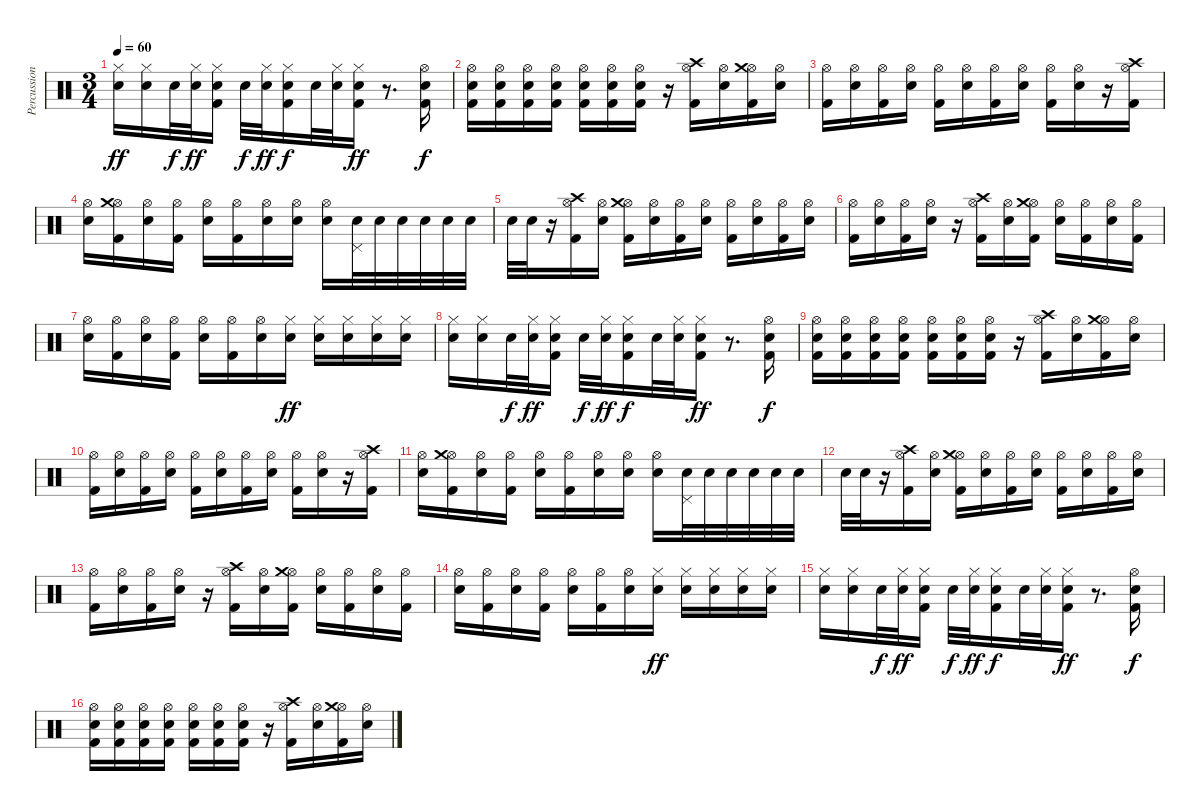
\track ("Percussion" "Percussion") {instrument percussion}
\staff {score}
\articulation defaults
\ts (3 4)
\tempo 60
\clef neutral
\ks c
("Hi-Hat (closed)" "Electric Snare (hit)").16{dy ff} ("Hi-Hat (closed)" "Electric Snare (hit)").16 "Electric Snare (hit)".32{dy f} ("Hi-Hat (closed)" "Electric Snare (hit)").32{dy ff} ("Hi-Hat (closed)" "Electric Snare (hit)" "Kick (hit) 2").16 "Electric Snare (hit)".32{dy f} ("Hi-Hat (closed)" "Electric Snare (hit)").32{dy ff} ("Hi-Hat (closed)" "Electric Snare (hit)" "Kick (hit) 2").16{dy f} "Electric Snare (hit)".32 ("Hi-Hat (closed)" "Electric Snare (hit)").32 ("Hi-Hat (closed)" "Electric Snare (hit)" "Kick (hit) 2").16{dy ff} r.8{d} ("Hi-Hat (open)" "Electric Snare (hit)" "Kick (hit) 2").16{dy f} |
("Hi-Hat (open)" "Electric Snare (hit)" "Kick (hit) 2").16 ("Hi-Hat (open)" "Electric Snare (hit)" "Kick (hit) 2").16 ("Hi-Hat (open)" "Electric Snare (hit)" "Kick (hit) 2").16 ("Hi-Hat (open)" "Electric Snare (hit)" "Kick (hit) 2").16 ("Hi-Hat (open)" "Electric Snare (hit)" "Kick (hit) 2").16 ("Hi-Hat (open)" "Electric Snare (hit)" "Kick (hit) 2").16 ("Hi-Hat (open)" "Electric Snare (hit)" "Kick (hit) 2").16 r.16 ("Hi-Hat (open)" "Crash high (hit)" "Kick (hit) 2").16 ("Hi-Hat (open)" "Electric Snare (hit)").16 ("Hi-Hat (open)" "Crash medium (hit)" "Kick (hit) 2").16 ("Hi-Hat (open)" "Electric Snare (hit)").16 |
("Hi-Hat (open)" "Kick (hit) 2").16 ("Hi-Hat (open)" "Electric Snare (hit)").16 ("Hi-Hat (open)" "Kick (hit) 2").16 ("Hi-Hat (open)" "Electric Snare (hit)").16 ("Hi-Hat (open)" "Kick (hit) 2").16 ("Hi-Hat (open)" "Electric Snare (hit)").16 ("Hi-Hat (open)" "Kick (hit) 2").16 ("Hi-Hat (open)" "Electric Snare (hit)").16 ("Hi-Hat (open)" "Kick (hit) 2").16 ("Hi-Hat (open)" "Electric Snare (hit)").16 r.16 ("Hi-Hat (open)" "Crash high (hit)" "Kick (hit) 2").16 |
("Hi-Hat (open)" "Electric Snare (hit)").16 ("Hi-Hat (open)" "Crash medium (hit)" "Kick (hit) 2").16 ("Hi-Hat (open)" "Electric Snare (hit)").16 ("Hi-Hat (open)" "Kick (hit) 2").16 ("Hi-Hat (open)" "Electric Snare (hit)").16 ("Hi-Hat (open)" "Kick (hit) 2").16 ("Hi-Hat (open)" "Electric Snare (hit)").16 ("Hi-Hat (open)" "Electric Snare (hit)").16 ("Hi-Hat (open)" "Electric Snare (hit)").16 ("Pedal Hi-Hat (hit)" "Electric Snare (hit)").32 "Electric Snare (hit)".32 "Electric Snare (hit)".32 "Electric Snare (hit)".32 "Electric Snare (hit)".32 "Electric Snare (hit)".32 |
"Electric Snare (hit)".32 "Electric Snare (hit)".32 r.16 ("Hi-Hat (open)" "Crash high (hit)" "Kick (hit) 2").16 ("Hi-Hat (open)" "Electric Snare (hit)").16 ("Hi-Hat (open)" "Crash medium (hit)" "Kick (hit) 2").16 ("Hi-Hat (open)" "Electric Snare (hit)").16 ("Hi-Hat (open)" "Kick (hit) 2").16 ("Hi-Hat (open)" "Electric Snare (hit)").16 ("Hi-Hat (open)" "Kick (hit) 2").16 ("Hi-Hat (open)" "Electric Snare (hit)").16 ("Hi-Hat (open)" "Kick (hit) 2").16 ("Hi-Hat (open)" "Electric Snare (hit)").16 |
("Hi-Hat (open)" "Kick (hit) 2").16 ("Hi-Hat (open)" "Electric Snare (hit)").16 ("Hi-Hat (open)" "Kick (hit) 2").16 ("Hi-Hat (open)" "Electric Snare (hit)").16 r.16 ("Hi-Hat (open)" "Crash high (hit)" "Kick (hit) 2").16 ("Hi-Hat (open)" "Electric Snare (hit)").16 ("Hi-Hat (open)" "Crash medium (hit)" "Kick (hit) 2").16 ("Hi-Hat (open)" "Electric Snare (hit)").16 ("Hi-Hat (open)" "Kick (hit) 2").16 ("Hi-Hat (open)" "Electric Snare (hit)").16 ("Hi-Hat (open)" "Kick (hit) 2").16 |
("Hi-Hat (open)" "Electric Snare (hit)").16 ("Hi-Hat (open)" "Kick (hit) 2").16 ("Hi-Hat (open)" "Electric Snare (hit)").16 ("Hi-Hat (open)" "Kick (hit) 2").16 ("Hi-Hat (open)" "Electric Snare (hit)").16 ("Hi-Hat (open)" "Kick (hit) 2").16 ("Hi-Hat (open)" "Electric Snare (hit)").16 ("Hi-Hat (closed)" "Electric Snare (hit)").16{dy ff} ("Hi-Hat (closed)" "Electric Snare (hit)").16 ("Hi-Hat (closed)" "Electric Snare (hit)").16 ("Hi-Hat (closed)" "Electric Snare (hit)").16 ("Hi-Hat (closed)" "Electric Snare (hit)").16 |
("Hi-Hat (closed)" "Electric Snare (hit)").16 ("Hi-Hat (closed)" "Electric Snare (hit)").16 "Electric Snare (hit)".32{dy f} ("Hi-Hat (closed)" "Electric Snare (hit)").32{dy ff} ("Hi-Hat (closed)" "Electric Snare (hit)" "Kick (hit) 2").16 "Electric Snare (hit)".32{dy f} ("Hi-Hat (closed)" "Electric Snare (hit)").32{dy ff} ("Hi-Hat (closed)" "Electric Snare (hit)" "Kick (hit) 2").16{dy f} "Electric Snare (hit)".32 ("Hi-Hat (closed)" "Electric Snare (hit)").32 ("Hi-Hat (closed)" "Electric Snare (hit)" "Kick (hit) 2").16{dy ff} r.8{d} ("Hi-Hat (open)" "Electric Snare (hit)" "Kick (hit) 2").16{dy f} |
("Hi-Hat (open)" "Electric Snare (hit)" "Kick (hit) 2").16 ("Hi-Hat (open)" "Electric Snare (hit)" "Kick (hit) 2").16 ("Hi-Hat (open)" "Electric Snare (hit)" "Kick (hit) 2").16 ("Hi-Hat (open)" "Electric Snare (hit)" "Kick (hit) 2").16 ("Hi-Hat (open)" "Electric Snare (hit)" "Kick (hit) 2").16 ("Hi-Hat (open)" "Electric Snare (hit)" "Kick (hit) 2").16 ("Hi-Hat (open)" "Electric Snare (hit)" "Kick (hit) 2").16 r.16 ("Hi-Hat (open)" "Crash high (hit)" "Kick (hit) 2").16 ("Hi-Hat (open)" "Electric Snare (hit)").16 ("Hi-Hat (open)" "Crash medium (hit)" "Kick (hit) 2").16 ("Hi-Hat (open)" "Electric Snare (hit)").16 |
("Hi-Hat (open)" "Kick (hit) 2").16 ("Hi-Hat (open)" "Electric Snare (hit)").16 ("Hi-Hat (open)" "Kick (hit) 2").16 ("Hi-Hat (open)" "Electric Snare (hit)").16 ("Hi-Hat (open)" "Kick (hit) 2").16 ("Hi-Hat (open)" "Electric Snare (hit)").16 ("Hi-Hat (open)" "Kick (hit) 2").16 ("Hi-Hat (open)" "Electric Snare (hit)").16 ("Hi-Hat (open)" "Kick (hit) 2").16 ("Hi-Hat (open)" "Electric Snare (hit)").16 r.16 ("Hi-Hat (open)" "Crash high (hit)" "Kick (hit) 2").16 |
("Hi-Hat (open)" "Electric Snare (hit)").16 ("Hi-Hat (open)" "Crash medium (hit)" "Kick (hit) 2").16 ("Hi-Hat (open)" "Electric Snare (hit)").16 ("Hi-Hat (open)" "Kick (hit) 2").16 ("Hi-Hat (open)" "Electric Snare (hit)").16 ("Hi-Hat (open)" "Kick (hit) 2").16 ("Hi-Hat (open)" "Electric Snare (hit)").16 ("Hi-Hat (open)" "Electric Snare (hit)").16 ("Hi-Hat (open)" "Electric Snare (hit)").16 ("Pedal Hi-Hat (hit)" "Electric Snare (hit)").32 "Electric Snare (hit)".32 "Electric Snare (hit)".32 "Electric Snare (hit)".32 "Electric Snare (hit)".32 "Electric Snare (hit)".32 |
"Electric Snare (hit)".32 "Electric Snare (hit)".32 r.16 ("Hi-Hat (open)" "Crash high (hit)" "Kick (hit) 2").16 ("Hi-Hat (open)" "Electric Snare (hit)").16 ("Hi-Hat (open)" "Crash medium (hit)" "Kick (hit) 2").16 ("Hi-Hat (open)" "Electric Snare (hit)").16 ("Hi-Hat (open)" "Kick (hit) 2").16 ("Hi-Hat (open)" "Electric Snare (hit)").16 ("Hi-Hat (open)" "Kick (hit) 2").16 ("Hi-Hat (open)" "Electric Snare (hit)").16 ("Hi-Hat (open)" "Kick (hit) 2").16 ("Hi-Hat (open)" "Electric Snare (hit)").16 |
("Hi-Hat (open)" "Kick (hit) 2").16 ("Hi-Hat (open)" "Electric Snare (hit)").16 ("Hi-Hat (open)" "Kick (hit) 2").16 ("Hi-Hat (open)" "Electric Snare (hit)").16 r.16 ("Hi-Hat (open)" "Crash high (hit)" "Kick (hit) 2").16 ("Hi-Hat (open)" "Electric Snare (hit)").16 ("Hi-Hat (open)" "Crash medium (hit)" "Kick (hit) 2").16 ("Hi-Hat (open)" "Electric Snare (hit)").16 ("Hi-Hat (open)" "Kick (hit) 2").16 ("Hi-Hat (open)" "Electric Snare (hit)").16 ("Hi-Hat (open)" "Kick (hit) 2").16 |
("Hi-Hat (open)" "Electric Snare (hit)").16 ("Hi-Hat (open)" "Kick (hit) 2").16 ("Hi-Hat (open)" "Electric Snare (hit)").16 ("Hi-Hat (open)" "Kick (hit) 2").16 ("Hi-Hat (open)" "Electric Snare (hit)").16 ("Hi-Hat (open)" "Kick (hit) 2").16 ("Hi-Hat (open)" "Electric Snare (hit)").16 ("Hi-Hat (closed)" "Electric Snare (hit)").16{dy ff} ("Hi-Hat (closed)" "Electric Snare (hit)").16 ("Hi-Hat (closed)" "Electric Snare (hit)").16 ("Hi-Hat (closed)" "Electric Snare (hit)").16 ("Hi-Hat (closed)" "Electric Snare (hit)").16 |
("Hi-Hat (closed)" "Electric Snare (hit)").16 ("Hi-Hat (closed)" "Electric Snare (hit)").16 "Electric Snare (hit)".32{dy f} ("Hi-Hat (closed)" "Electric Snare (hit)").32{dy ff} ("Hi-Hat (closed)" "Electric Snare (hit)" "Kick (hit) 2").16 "Electric Snare (hit)".32{dy f} ("Hi-Hat (closed)" "Electric Snare (hit)").32{dy ff} ("Hi-Hat (closed)" "Electric Snare (hit)" "Kick (hit) 2").16{dy f} "Electric Snare (hit)".32 ("Hi-Hat (closed)" "Electric Snare (hit)").32 ("Hi-Hat (closed)" "Electric Snare (hit)" "Kick (hit) 2").16{dy ff} r.8{d} ("Hi-Hat (open)" "Electric Snare (hit)" "Kick (hit) 2").16{dy f} |
("Hi-Hat (open)" "Electric Snare (hit)" "Kick (hit) 2").16 ("Hi-Hat (open)" "Electric Snare (hit)" "Kick (hit) 2").16 ("Hi-Hat (open)" "Electric Snare (hit)" "Kick (hit) 2").16 ("Hi-Hat (open)" "Electric Snare (hit)" "Kick (hit) 2").16 ("Hi-Hat (open)" "Electric Snare (hit)" "Kick (hit) 2").16 ("Hi-Hat (open)" "Electric Snare (hit)" "Kick (hit) 2").16 ("Hi-Hat (open)" "Electric Snare (hit)" "Kick (hit) 2").16 r.16 ("Hi-Hat (open)" "Crash high (hit)" "Kick (hit) 2").16 ("Hi-Hat (open)" "Electric Snare (hit)").16 ("Hi-Hat (open)" "Crash medium (hit)" "Kick (hit) 2").16 ("Hi-Hat (open)" "Electric Snare (hit)").16
